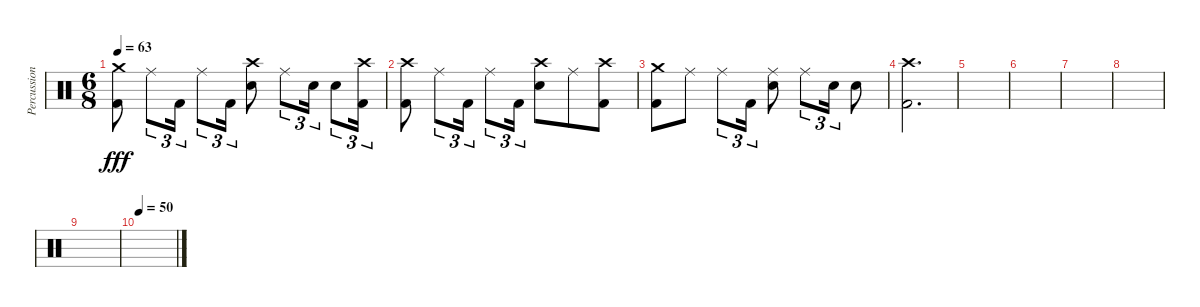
\track ("Percussion" "Percussion") {instrument percussion}
\staff {score}
\articulation defaults
\ts (6 8)
\tempo 63
\clef neutral
\ks c
("Crash medium (hit)" "Kick (hit) 2").8{dy fff} "Ride (middle)".8{tu (3 2)} "Kick (hit) 2".16{tu (3 2)} "Ride (middle)".8{tu (3 2)} "Kick (hit) 2".16{tu (3 2)} ("Crash high (hit)" "Electric Snare (hit)").8 "Ride (middle)".8{tu (3 2)} "Electric Snare (hit)".16{tu (3 2)} "Electric Snare (hit)".8{tu (3 2)} ("Crash high (hit)" "Kick (hit) 2").16{tu (3 2)} |
("Crash high (hit)" "Kick (hit) 2").8 "Ride (middle)".8{tu (3 2)} "Kick (hit) 2".16{tu (3 2)} "Ride (middle)".8{tu (3 2)} "Kick (hit) 2".16{tu (3 2)} ("Crash high (hit)" "Electric Snare (hit)").8 "Ride (middle)".8 ("Crash high (hit)" "Kick (hit) 2").8 |
("Crash medium (hit)" "Kick (hit) 2").8 "Ride (middle)".8 "Ride (middle)".8{tu (3 2)} "Kick (hit) 2".16{tu (3 2)} ("Ride (middle)" "Electric Snare (hit)").8 "Ride (middle)".8{tu (3 2)} "Electric Snare (hit)".16{tu (3 2)} "Electric Snare (hit)".8 |
("Crash high (hit)" "Kick (hit) 2").2{d} |
|
|
|
|
|
\tempo 50
